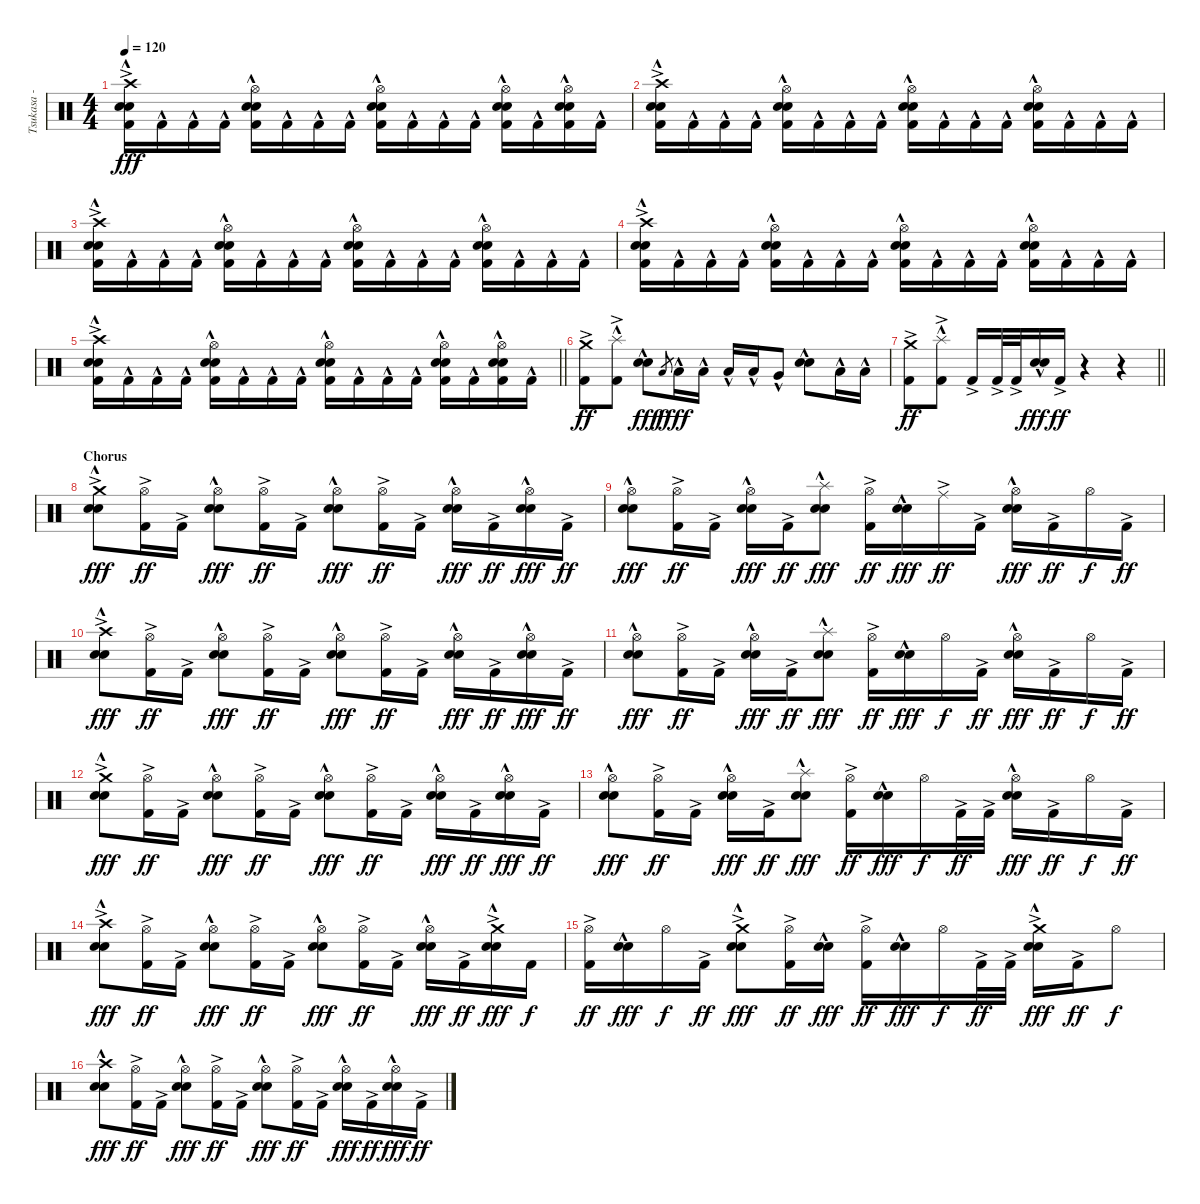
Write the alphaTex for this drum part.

\track ("Tsukasa - Drums" "Tsukasa - ") {instrument percussion}
\staff {score}
\articulation defaults
\ts (4 4)
\tempo 120
\clef neutral
\ks c
("Crash high (hit)"{ac} "Electric Snare (hit)"{hac} "Snare (hit) 2"{hac} "Kick (hit) 2"{hac}).16{dy fff} "Kick (hit) 2"{hac}.16 "Kick (hit) 2"{hac}.16 "Kick (hit) 2"{hac}.16 ("Hi-Hat (open)" "Electric Snare (hit)"{hac} "Snare (hit) 2"{hac} "Kick (hit) 2"{hac}).16 "Kick (hit) 2"{hac}.16 "Kick (hit) 2"{hac}.16 "Kick (hit) 2"{hac}.16 ("Hi-Hat (open)" "Electric Snare (hit)"{hac} "Snare (hit) 2"{hac} "Kick (hit) 2"{hac}).16 "Kick (hit) 2"{hac}.16 "Kick (hit) 2"{hac}.16 "Kick (hit) 2"{hac}.16 ("Hi-Hat (open)" "Electric Snare (hit)"{hac} "Snare (hit) 2"{hac} "Kick (hit) 2"{hac}).16 "Kick (hit) 2"{hac}.16 ("Hi-Hat (open)" "Electric Snare (hit)"{hac} "Snare (hit) 2"{hac} "Kick (hit) 2"{hac}).16 "Kick (hit) 2"{hac}.16 |
("Crash high (hit)"{ac} "Electric Snare (hit)"{hac} "Snare (hit) 2"{hac} "Kick (hit) 2"{hac}).16 "Kick (hit) 2"{hac}.16 "Kick (hit) 2"{hac}.16 "Kick (hit) 2"{hac}.16 ("Hi-Hat (open)" "Electric Snare (hit)"{hac} "Snare (hit) 2"{hac} "Kick (hit) 2"{hac}).16 "Kick (hit) 2"{hac}.16 "Kick (hit) 2"{hac}.16 "Kick (hit) 2"{hac}.16 ("Hi-Hat (open)" "Electric Snare (hit)"{hac} "Snare (hit) 2"{hac} "Kick (hit) 2"{hac}).16 "Kick (hit) 2"{hac}.16 "Kick (hit) 2"{hac}.16 "Kick (hit) 2"{hac}.16 ("Hi-Hat (open)" "Electric Snare (hit)"{hac} "Snare (hit) 2"{hac} "Kick (hit) 2"{hac}).16 "Kick (hit) 2"{hac}.16 "Kick (hit) 2"{hac}.16 "Kick (hit) 2"{hac}.16 |
("Crash high (hit)"{ac} "Electric Snare (hit)"{hac} "Snare (hit) 2"{hac} "Kick (hit) 2"{hac}).16 "Kick (hit) 2"{hac}.16 "Kick (hit) 2"{hac}.16 "Kick (hit) 2"{hac}.16 ("Hi-Hat (open)" "Electric Snare (hit)"{hac} "Snare (hit) 2"{hac} "Kick (hit) 2"{hac}).16 "Kick (hit) 2"{hac}.16 "Kick (hit) 2"{hac}.16 "Kick (hit) 2"{hac}.16 ("Hi-Hat (open)" "Electric Snare (hit)"{hac} "Snare (hit) 2"{hac} "Kick (hit) 2"{hac}).16 "Kick (hit) 2"{hac}.16 "Kick (hit) 2"{hac}.16 "Kick (hit) 2"{hac}.16 ("Hi-Hat (open)" "Electric Snare (hit)"{hac} "Snare (hit) 2"{hac} "Kick (hit) 2"{hac}).16 "Kick (hit) 2"{hac}.16 "Kick (hit) 2"{hac}.16 "Kick (hit) 2"{hac}.16 |
("Crash high (hit)"{ac} "Electric Snare (hit)"{hac} "Snare (hit) 2"{hac} "Kick (hit) 2"{hac}).16 "Kick (hit) 2"{hac}.16 "Kick (hit) 2"{hac}.16 "Kick (hit) 2"{hac}.16 ("Hi-Hat (open)" "Electric Snare (hit)"{hac} "Snare (hit) 2"{hac} "Kick (hit) 2"{hac}).16 "Kick (hit) 2"{hac}.16 "Kick (hit) 2"{hac}.16 "Kick (hit) 2"{hac}.16 ("Hi-Hat (open)" "Electric Snare (hit)"{hac} "Snare (hit) 2"{hac} "Kick (hit) 2"{hac}).16 "Kick (hit) 2"{hac}.16 "Kick (hit) 2"{hac}.16 "Kick (hit) 2"{hac}.16 ("Hi-Hat (open)" "Electric Snare (hit)"{hac} "Snare (hit) 2"{hac} "Kick (hit) 2"{hac}).16 "Kick (hit) 2"{hac}.16 "Kick (hit) 2"{hac}.16 "Kick (hit) 2"{hac}.16 |
\barLineRight lightlight
("Crash high (hit)"{ac} "Electric Snare (hit)"{hac} "Snare (hit) 2"{hac} "Kick (hit) 2"{hac}).16 "Kick (hit) 2"{hac}.16 "Kick (hit) 2"{hac}.16 "Kick (hit) 2"{hac}.16 ("Hi-Hat (open)" "Electric Snare (hit)"{hac} "Snare (hit) 2"{hac} "Kick (hit) 2"{hac}).16 "Kick (hit) 2"{hac}.16 "Kick (hit) 2"{hac}.16 "Kick (hit) 2"{hac}.16 ("Hi-Hat (open)" "Electric Snare (hit)"{hac} "Snare (hit) 2"{hac} "Kick (hit) 2"{hac}).16 "Kick (hit) 2"{hac}.16 "Kick (hit) 2"{hac}.16 "Kick (hit) 2"{hac}.16 ("Hi-Hat (open)" "Electric Snare (hit)"{hac} "Snare (hit) 2"{hac} "Kick (hit) 2"{hac}).16 "Kick (hit) 2"{hac}.16 ("Hi-Hat (open)" "Electric Snare (hit)"{hac} "Snare (hit) 2"{hac} "Kick (hit) 2"{hac}).16 "Kick (hit) 2"{hac}.16 |
\section ("" "")
("Crash medium (hit)"{ac} "Kick (hit) 2"{ac}).8{dy ff} ("Splash (hit)"{hac} "Kick (hit) 2"{ac}).8 ("Electric Snare (hit)"{hac} "Snare (hit) 2"{hac}).8{dy fff} "Low Tom (hit)".8{gr dy f} "Low Tom (hit)"{hac}.16{dy fff} "Low Tom (hit)"{hac}.16 "Low Tom (hit)"{hac}.16 "Low Tom (hit)"{hac}.16 "Very Low Tom (hit)"{hac}.8 ("Electric Snare (hit)"{hac} "Snare (hit) 2"{hac}).8 "Low Floor Tom (hit)"{hac}.16 "Low Floor Tom (hit)"{hac}.16 |
\barLineRight lightlight
("Crash medium (hit)"{ac} "Kick (hit) 2"{ac}).8{dy ff} ("Splash (hit)"{hac} "Kick (hit) 2"{ac}).8 "Kick (hit) 2"{ac}.16 "Kick (hit) 2"{ac}.32 "Kick (hit) 2"{ac}.32 ("Electric Snare (hit)"{hac} "Snare (hit) 2"{hac}).16{dy fff} "Kick (hit) 2"{ac}.16{dy ff} r.4 r.4 |
\section ("" "Chorus")
("Crash medium (hit)"{ac} "Electric Snare (hit)"{hac} "Snare (hit) 2"{hac}).8{dy fff} ("Hi-Hat (open)" "Kick (hit) 2"{ac}).16{dy ff} "Kick (hit) 2"{ac}.16 ("Hi-Hat (open)" "Electric Snare (hit)"{hac} "Snare (hit) 2"{hac}).8{dy fff} ("Hi-Hat (open)" "Kick (hit) 2"{ac}).16{dy ff} "Kick (hit) 2"{ac}.16 ("Hi-Hat (open)" "Electric Snare (hit)"{hac} "Snare (hit) 2"{hac}).8{dy fff} ("Hi-Hat (open)" "Kick (hit) 2"{ac}).16{dy ff} "Kick (hit) 2"{ac}.16 ("Hi-Hat (open)" "Electric Snare (hit)"{hac} "Snare (hit) 2"{hac}).16{dy fff} "Kick (hit) 2"{ac}.16{dy ff} ("Hi-Hat (open)" "Electric Snare (hit)"{hac} "Snare (hit) 2"{hac}).16{dy fff} "Kick (hit) 2"{ac}.16{dy ff} |
("Hi-Hat (open)" "Electric Snare (hit)"{hac} "Snare (hit) 2"{hac}).8{dy fff} ("Hi-Hat (open)" "Kick (hit) 2"{ac}).16{dy ff} "Kick (hit) 2"{ac}.16 ("Hi-Hat (open)" "Electric Snare (hit)"{hac} "Snare (hit) 2"{hac}).16{dy fff} "Kick (hit) 2"{ac}.16{dy ff} ("Splash (hit)"{hac} "Electric Snare (hit)"{hac} "Snare (hit) 2"{hac}).8{dy fff} ("Hi-Hat (open)" "Kick (hit) 2"{ac}).16{dy ff} ("Electric Snare (hit)"{hac} "Snare (hit) 2"{hac}).16{dy fff} "Ride (middle)"{ac}.16{dy ff} "Kick (hit) 2"{ac}.16 ("Hi-Hat (open)" "Electric Snare (hit)"{hac} "Snare (hit) 2"{hac}).16{dy fff} "Kick (hit) 2"{ac}.16{dy ff} "Hi-Hat (open)".16{dy f} "Kick (hit) 2"{ac}.16{dy ff} |
("Crash high (hit)"{ac} "Electric Snare (hit)"{hac} "Snare (hit) 2"{hac}).8{dy fff} ("Hi-Hat (open)" "Kick (hit) 2"{ac}).16{dy ff} "Kick (hit) 2"{ac}.16 ("Hi-Hat (open)" "Electric Snare (hit)"{hac} "Snare (hit) 2"{hac}).8{dy fff} ("Hi-Hat (open)" "Kick (hit) 2"{ac}).16{dy ff} "Kick (hit) 2"{ac}.16 ("Hi-Hat (open)" "Electric Snare (hit)"{hac} "Snare (hit) 2"{hac}).8{dy fff} ("Hi-Hat (open)" "Kick (hit) 2"{ac}).16{dy ff} "Kick (hit) 2"{ac}.16 ("Hi-Hat (open)" "Electric Snare (hit)"{hac} "Snare (hit) 2"{hac}).16{dy fff} "Kick (hit) 2"{ac}.16{dy ff} ("Hi-Hat (open)" "Electric Snare (hit)"{hac} "Snare (hit) 2"{hac}).16{dy fff} "Kick (hit) 2"{ac}.16{dy ff} |
("Hi-Hat (open)" "Electric Snare (hit)"{hac} "Snare (hit) 2"{hac}).8{dy fff} ("Hi-Hat (open)" "Kick (hit) 2"{ac}).16{dy ff} "Kick (hit) 2"{ac}.16 ("Hi-Hat (open)" "Electric Snare (hit)"{hac} "Snare (hit) 2"{hac}).16{dy fff} "Kick (hit) 2"{ac}.16{dy ff} ("Splash (hit)"{hac} "Electric Snare (hit)"{hac} "Snare (hit) 2"{hac}).8{dy fff} ("Hi-Hat (open)" "Kick (hit) 2"{ac}).16{dy ff} ("Electric Snare (hit)"{hac} "Snare (hit) 2"{hac}).16{dy fff} "Hi-Hat (open)".16{dy f} "Kick (hit) 2"{ac}.16{dy ff} ("Hi-Hat (open)" "Electric Snare (hit)"{hac} "Snare (hit) 2"{hac}).16{dy fff} "Kick (hit) 2"{ac}.16{dy ff} "Hi-Hat (open)".16{dy f} "Kick (hit) 2"{ac}.16{dy ff} |
("Crash medium (hit)"{ac} "Electric Snare (hit)"{hac} "Snare (hit) 2"{hac}).8{dy fff} ("Hi-Hat (open)" "Kick (hit) 2"{ac}).16{dy ff} "Kick (hit) 2"{ac}.16 ("Hi-Hat (open)" "Electric Snare (hit)"{hac} "Snare (hit) 2"{hac}).8{dy fff} ("Hi-Hat (open)" "Kick (hit) 2"{ac}).16{dy ff} "Kick (hit) 2"{ac}.16 ("Hi-Hat (open)" "Electric Snare (hit)"{hac} "Snare (hit) 2"{hac}).8{dy fff} ("Hi-Hat (open)" "Kick (hit) 2"{ac}).16{dy ff} "Kick (hit) 2"{ac}.16 ("Hi-Hat (open)" "Electric Snare (hit)"{hac} "Snare (hit) 2"{hac}).16{dy fff} "Kick (hit) 2"{ac}.16{dy ff} ("Hi-Hat (open)" "Electric Snare (hit)"{hac} "Snare (hit) 2"{hac}).16{dy fff} "Kick (hit) 2"{ac}.16{dy ff} |
("Hi-Hat (open)" "Electric Snare (hit)"{hac} "Snare (hit) 2"{hac}).8{dy fff} ("Hi-Hat (open)" "Kick (hit) 2"{ac}).16{dy ff} "Kick (hit) 2"{ac}.16 ("Hi-Hat (open)" "Electric Snare (hit)"{hac} "Snare (hit) 2"{hac}).16{dy fff} "Kick (hit) 2"{ac}.16{dy ff} ("Splash (hit)"{hac} "Electric Snare (hit)"{hac} "Snare (hit) 2"{hac}).8{dy fff} ("Hi-Hat (open)" "Kick (hit) 2"{ac}).16{dy ff} ("Electric Snare (hit)"{hac} "Snare (hit) 2"{hac}).16{dy fff} "Hi-Hat (open)".16{dy f} "Kick (hit) 2"{ac}.32{dy ff} "Kick (hit) 2"{ac}.32 ("Hi-Hat (open)" "Electric Snare (hit)"{hac} "Snare (hit) 2"{hac}).16{dy fff} "Kick (hit) 2"{ac}.16{dy ff} "Hi-Hat (open)".16{dy f} "Kick (hit) 2"{ac}.16{dy ff} |
("Crash high (hit)"{ac} "Electric Snare (hit)"{hac} "Snare (hit) 2"{hac}).8{dy fff} ("Hi-Hat (open)" "Kick (hit) 2"{ac}).16{dy ff} "Kick (hit) 2"{ac}.16 ("Hi-Hat (open)" "Electric Snare (hit)"{hac} "Snare (hit) 2"{hac}).8{dy fff} ("Hi-Hat (open)" "Kick (hit) 2"{ac}).16{dy ff} "Kick (hit) 2"{ac}.16 ("Hi-Hat (open)" "Electric Snare (hit)"{hac} "Snare (hit) 2"{hac}).8{dy fff} ("Hi-Hat (open)" "Kick (hit) 2"{ac}).16{dy ff} "Kick (hit) 2"{ac}.16 ("Hi-Hat (open)" "Electric Snare (hit)"{hac} "Snare (hit) 2"{hac}).16{dy fff} "Kick (hit) 2"{ac}.16{dy ff} ("Crash medium (hit)"{ac} "Electric Snare (hit)"{hac} "Snare (hit) 2"{hac}).16{dy fff} "Kick (hit) 2".16{dy f} |
("Hi-Hat (open)" "Kick (hit) 2"{ac}).16{dy ff} ("Electric Snare (hit)"{hac} "Snare (hit) 2"{hac}).16{dy fff} "Hi-Hat (open)".16{dy f} "Kick (hit) 2"{ac}.16{dy ff} ("Crash medium (hit)"{ac} "Electric Snare (hit)"{hac} "Snare (hit) 2"{hac}).8{dy fff} ("Hi-Hat (open)" "Kick (hit) 2"{ac}).16{dy ff} ("Electric Snare (hit)"{hac} "Snare (hit) 2"{hac}).16{dy fff} ("Hi-Hat (open)" "Kick (hit) 2"{ac}).16{dy ff} ("Electric Snare (hit)"{hac} "Snare (hit) 2"{hac}).16{dy fff} "Hi-Hat (open)".16{dy f} "Kick (hit) 2"{ac}.32{dy ff} "Kick (hit) 2"{ac}.32 ("Crash medium (hit)"{ac} "Electric Snare (hit)"{hac} "Snare (hit) 2"{hac}).16{dy fff} "Kick (hit) 2"{ac}.16{dy ff} "Hi-Hat (open)".8{dy f} |
("Crash high (hit)" "Electric Snare (hit)"{hac} "Snare (hit) 2"{hac}).8{dy fff} ("Hi-Hat (open)" "Kick (hit) 2"{ac}).16{dy ff} "Kick (hit) 2"{ac}.16 ("Hi-Hat (open)" "Electric Snare (hit)"{hac} "Snare (hit) 2"{hac}).8{dy fff} ("Hi-Hat (open)" "Kick (hit) 2"{ac}).16{dy ff} "Kick (hit) 2"{ac}.16 ("Hi-Hat (open)" "Electric Snare (hit)"{hac} "Snare (hit) 2"{hac}).8{dy fff} ("Hi-Hat (open)" "Kick (hit) 2"{ac}).16{dy ff} "Kick (hit) 2"{ac}.16 ("Hi-Hat (open)" "Electric Snare (hit)"{hac} "Snare (hit) 2"{hac}).16{dy fff} "Kick (hit) 2"{ac}.16{dy ff} ("Hi-Hat (open)" "Electric Snare (hit)"{hac} "Snare (hit) 2"{hac}).16{dy fff} "Kick (hit) 2"{ac}.16{dy ff}
